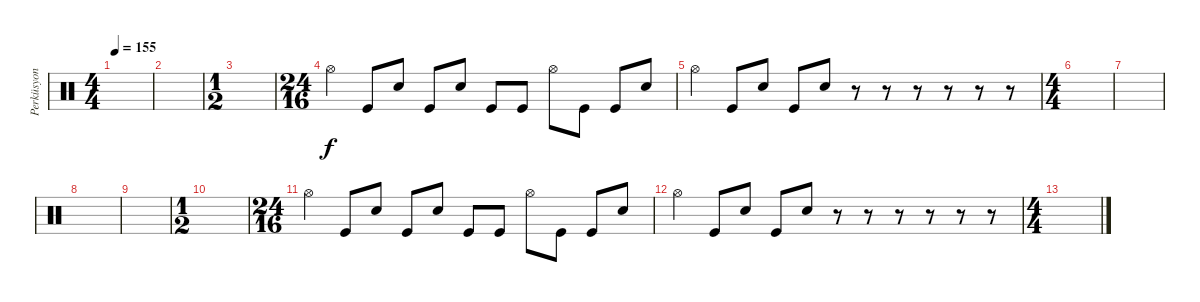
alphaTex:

\track ("Perküsyon" "Perküsyon") {instrument percussion}
\staff {score}
\articulation defaults
\ts (4 4)
\tempo 155
\clef neutral
\ks c
|
|
\ts (1 2)
|
\ts (24 16)
"Hi-Hat (open)".4 "Kick (hit)".8 "Electric Snare (hit)".8 "Kick (hit)".8 "Electric Snare (hit)".8 "Kick (hit)".8 "Kick (hit)".8 "Hi-Hat (open)".8 "Kick (hit)".8 "Kick (hit)".8 "Electric Snare (hit)".8 |
"Hi-Hat (open)".4 "Kick (hit)".8 "Electric Snare (hit)".8 "Kick (hit)".8 "Electric Snare (hit)".8 r.8 r.8 r.8 r.8 r.8 r.8 |
\ts (4 4)
|
|
|
|
\ts (1 2)
|
\ts (24 16)
"Hi-Hat (open)".4 "Kick (hit)".8 "Electric Snare (hit)".8 "Kick (hit)".8 "Electric Snare (hit)".8 "Kick (hit)".8 "Kick (hit)".8 "Hi-Hat (open)".8 "Kick (hit)".8 "Kick (hit)".8 "Electric Snare (hit)".8 |
"Hi-Hat (open)".4 "Kick (hit)".8 "Electric Snare (hit)".8 "Kick (hit)".8 "Electric Snare (hit)".8 r.8 r.8 r.8 r.8 r.8 r.8 |
\ts (4 4)
